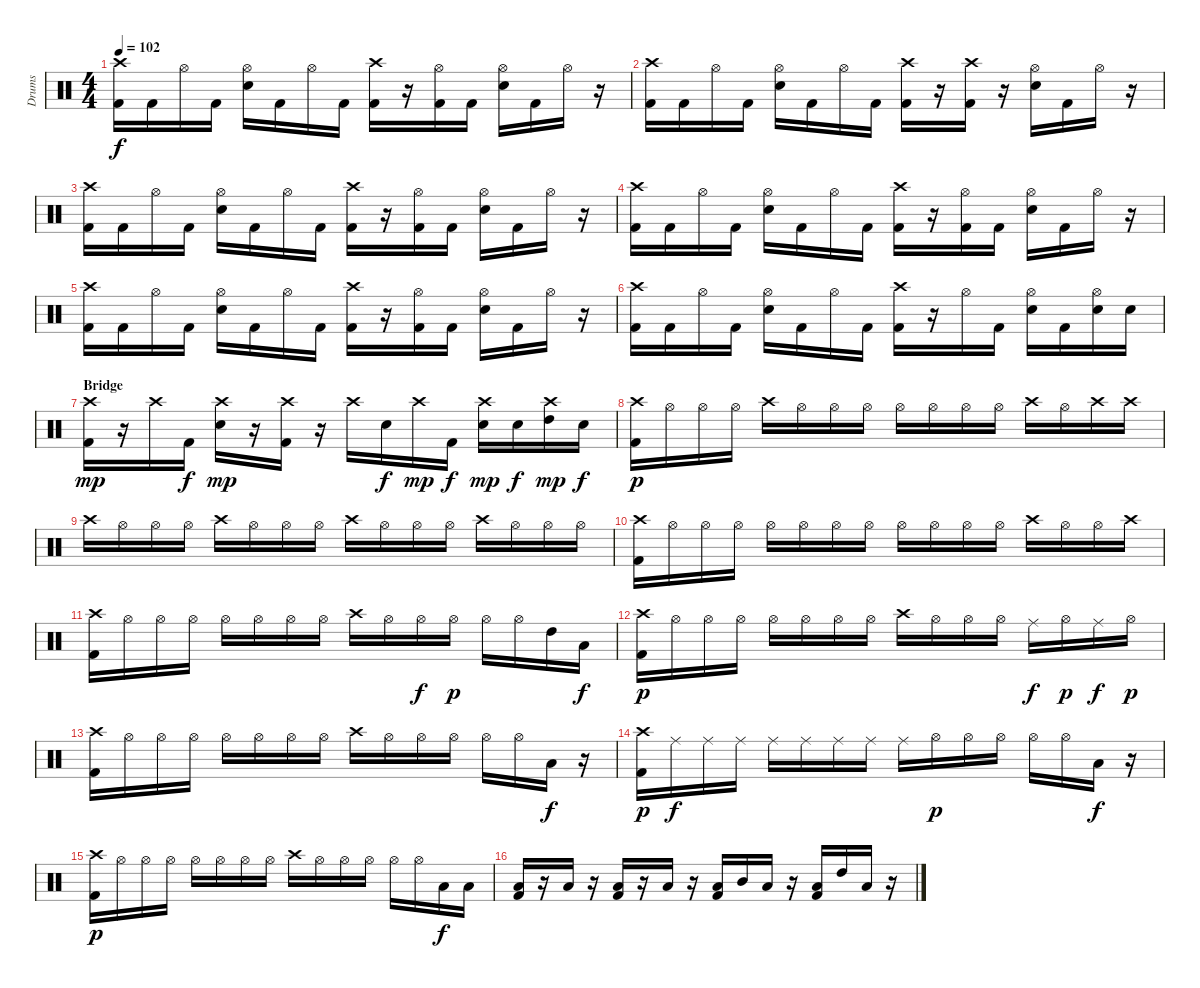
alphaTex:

\track ("Drums" "Drums") {instrument percussion}
\staff {score}
\articulation defaults
\ts (4 4)
\tempo 102
\clef neutral
\ks c
("Crash high (hit)" "Kick (hit) 2").16{dy f} "Kick (hit) 2".16 "Hi-Hat (open)".16 "Kick (hit) 2".16 ("Hi-Hat (open)" "Snare (hit) 2").16 "Kick (hit) 2".16 "Hi-Hat (open)".16 "Kick (hit) 2".16 ("Crash high (hit)" "Kick (hit) 2").16 r.16 ("Hi-Hat (open)" "Kick (hit) 2").16 "Kick (hit) 2".16 ("Hi-Hat (open)" "Snare (hit) 2").16 "Kick (hit) 2".16 "Hi-Hat (open)".16 r.16 |
("Crash high (hit)" "Kick (hit) 2").16 "Kick (hit) 2".16 "Hi-Hat (open)".16 "Kick (hit) 2".16 ("Hi-Hat (open)" "Snare (hit) 2").16 "Kick (hit) 2".16 "Hi-Hat (open)".16 "Kick (hit) 2".16 ("Crash high (hit)" "Kick (hit) 2").16 r.16 ("Crash high (hit)" "Kick (hit) 2").16 r.16 ("Hi-Hat (open)" "Snare (hit) 2").16 "Kick (hit) 2".16 "Hi-Hat (open)".16 r.16 |
("Crash high (hit)" "Kick (hit) 2").16 "Kick (hit) 2".16 "Hi-Hat (open)".16 "Kick (hit) 2".16 ("Hi-Hat (open)" "Snare (hit) 2").16 "Kick (hit) 2".16 "Hi-Hat (open)".16 "Kick (hit) 2".16 ("Crash high (hit)" "Kick (hit) 2").16 r.16 ("Hi-Hat (open)" "Kick (hit) 2").16 "Kick (hit) 2".16 ("Hi-Hat (open)" "Snare (hit) 2").16 "Kick (hit) 2".16 "Hi-Hat (open)".16 r.16 |
("Crash high (hit)" "Kick (hit) 2").16 "Kick (hit) 2".16 "Hi-Hat (open)".16 "Kick (hit) 2".16 ("Hi-Hat (open)" "Snare (hit) 2").16 "Kick (hit) 2".16 "Hi-Hat (open)".16 "Kick (hit) 2".16 ("Crash high (hit)" "Kick (hit) 2").16 r.16 ("Hi-Hat (open)" "Kick (hit) 2").16 "Kick (hit) 2".16 ("Hi-Hat (open)" "Snare (hit) 2").16 "Kick (hit) 2".16 "Hi-Hat (open)".16 r.16 |
("Crash high (hit)" "Kick (hit) 2").16 "Kick (hit) 2".16 "Hi-Hat (open)".16 "Kick (hit) 2".16 ("Hi-Hat (open)" "Snare (hit) 2").16 "Kick (hit) 2".16 "Hi-Hat (open)".16 "Kick (hit) 2".16 ("Crash high (hit)" "Kick (hit) 2").16 r.16 ("Hi-Hat (open)" "Kick (hit) 2").16 "Kick (hit) 2".16 ("Hi-Hat (open)" "Snare (hit) 2").16 "Kick (hit) 2".16 "Hi-Hat (open)".16 r.16 |
("Crash high (hit)" "Kick (hit) 2").16 "Kick (hit) 2".16 "Hi-Hat (open)".16 "Kick (hit) 2".16 ("Hi-Hat (open)" "Snare (hit) 2").16 "Kick (hit) 2".16 "Hi-Hat (open)".16 "Kick (hit) 2".16 ("Crash high (hit)" "Kick (hit) 2").16 r.16 "Hi-Hat (open)".16 "Kick (hit) 2".16 ("Hi-Hat (open)" "Snare (hit) 2").16 "Kick (hit) 2".16 ("Hi-Hat (open)" "Snare (hit) 2").16 "Snare (hit) 2".16 |
\section ("" "Bridge")
("Crash high (hit)" "Kick (hit) 2").16{dy mp} r.16 "Crash high (hit)".16 "Kick (hit) 2".16{dy f} ("Crash high (hit)" "Snare (hit) 2").16{dy mp} r.16 ("Crash high (hit)" "Kick (hit) 2").16 r.16 "Crash high (hit)".16 "Snare (hit) 2".16{dy f} "Crash high (hit)".16{dy mp} "Kick (hit) 2".16{dy f} ("Crash high (hit)" "Snare (hit) 2").16{dy mp} "Snare (hit) 2".16{dy f} ("Crash high (hit)" "High Tom (hit)").16{dy mp} "Snare (hit) 2".16{dy f} |
("Crash high (hit)" "Kick (hit) 2").16{dy p} "Hi-Hat (open)".16 "Hi-Hat (open)".16 "Hi-Hat (open)".16 "Crash high (hit)".16 "Hi-Hat (open)".16 "Hi-Hat (open)".16 "Hi-Hat (open)".16 "Hi-Hat (open)".16 "Hi-Hat (open)".16 "Hi-Hat (open)".16 "Hi-Hat (open)".16 "Crash high (hit)".16 "Hi-Hat (open)".16 "Crash high (hit)".16 "Crash high (hit)".16 |
"Crash high (hit)".16 "Hi-Hat (open)".16 "Hi-Hat (open)".16 "Hi-Hat (open)".16 "Crash high (hit)".16 "Hi-Hat (open)".16 "Hi-Hat (open)".16 "Hi-Hat (open)".16 "Crash high (hit)".16 "Hi-Hat (open)".16 "Hi-Hat (open)".16 "Hi-Hat (open)".16 "Crash high (hit)".16 "Hi-Hat (open)".16 "Hi-Hat (open)".16 "Hi-Hat (open)".16 |
("Crash high (hit)" "Kick (hit) 2").16 "Hi-Hat (open)".16 "Hi-Hat (open)".16 "Hi-Hat (open)".16 "Hi-Hat (open)".16 "Hi-Hat (open)".16 "Hi-Hat (open)".16 "Hi-Hat (open)".16 "Hi-Hat (open)".16 "Hi-Hat (open)".16 "Hi-Hat (open)".16 "Hi-Hat (open)".16 "Crash high (hit)".16 "Hi-Hat (open)".16 "Hi-Hat (open)".16 "Crash high (hit)".16 |
("Crash high (hit)" "Kick (hit) 2").16 "Hi-Hat (open)".16 "Hi-Hat (open)".16 "Hi-Hat (open)".16 "Hi-Hat (open)".16 "Hi-Hat (open)".16 "Hi-Hat (open)".16 "Hi-Hat (open)".16 "Crash high (hit)".16 "Hi-Hat (open)".16 "Hi-Hat (open)".16{dy f} "Hi-Hat (open)".16{dy p} "Hi-Hat (open)".16 "Hi-Hat (open)".16 "High Tom (hit)".16 "Low Floor Tom (hit)".16{dy f} |
("Crash high (hit)" "Kick (hit) 2").16{dy p} "Hi-Hat (open)".16 "Hi-Hat (open)".16 "Hi-Hat (open)".16 "Hi-Hat (open)".16 "Hi-Hat (open)".16 "Hi-Hat (open)".16 "Hi-Hat (open)".16 "Crash high (hit)".16 "Hi-Hat (open)".16 "Hi-Hat (open)".16 "Hi-Hat (open)".16 "Ride (middle)".16{dy f} "Hi-Hat (open)".16{dy p} "Ride (middle)".16{dy f} "Hi-Hat (open)".16{dy p} |
("Crash high (hit)" "Kick (hit) 2").16 "Hi-Hat (open)".16 "Hi-Hat (open)".16 "Hi-Hat (open)".16 "Hi-Hat (open)".16 "Hi-Hat (open)".16 "Hi-Hat (open)".16 "Hi-Hat (open)".16 "Crash high (hit)".16 "Hi-Hat (open)".16 "Hi-Hat (open)".16 "Hi-Hat (open)".16 "Hi-Hat (open)".16 "Hi-Hat (open)".16 "Low Floor Tom (hit)".16{dy f} r.16 |
("Crash high (hit)" "Kick (hit) 2").16{dy p} "Ride (middle)".16{dy f} "Ride (middle)".16 "Ride (middle)".16 "Ride (middle)".16 "Ride (middle)".16 "Ride (middle)".16 "Ride (middle)".16 "Ride (middle)".16 "Hi-Hat (open)".16{dy p} "Hi-Hat (open)".16 "Hi-Hat (open)".16 "Hi-Hat (open)".16 "Hi-Hat (open)".16 "Low Floor Tom (hit)".16{dy f} r.16 |
("Crash high (hit)" "Kick (hit) 2").16{dy p} "Hi-Hat (open)".16 "Hi-Hat (open)".16 "Hi-Hat (open)".16 "Hi-Hat (open)".16 "Hi-Hat (open)".16 "Hi-Hat (open)".16 "Hi-Hat (open)".16 "Crash high (hit)".16 "Hi-Hat (open)".16 "Hi-Hat (open)".16 "Hi-Hat (open)".16 "Hi-Hat (open)".16 "Hi-Hat (open)".16 "Low Floor Tom (hit)".16{dy f} "Low Floor Tom (hit)".16 |
("Low Floor Tom (hit)" "Kick (hit) 2").16 r.16 "Low Floor Tom (hit)".16 r.16 ("Low Floor Tom (hit)" "Kick (hit) 2").16 r.16 "Low Floor Tom (hit)".16 r.16 ("Low Floor Tom (hit)" "Kick (hit) 2").16 "Mid Tom (hit)".16 "Low Floor Tom (hit)".16 r.16 ("Low Floor Tom (hit)" "Kick (hit) 2").16 "High Tom (hit)".16 "Low Floor Tom (hit)".16 r.16
